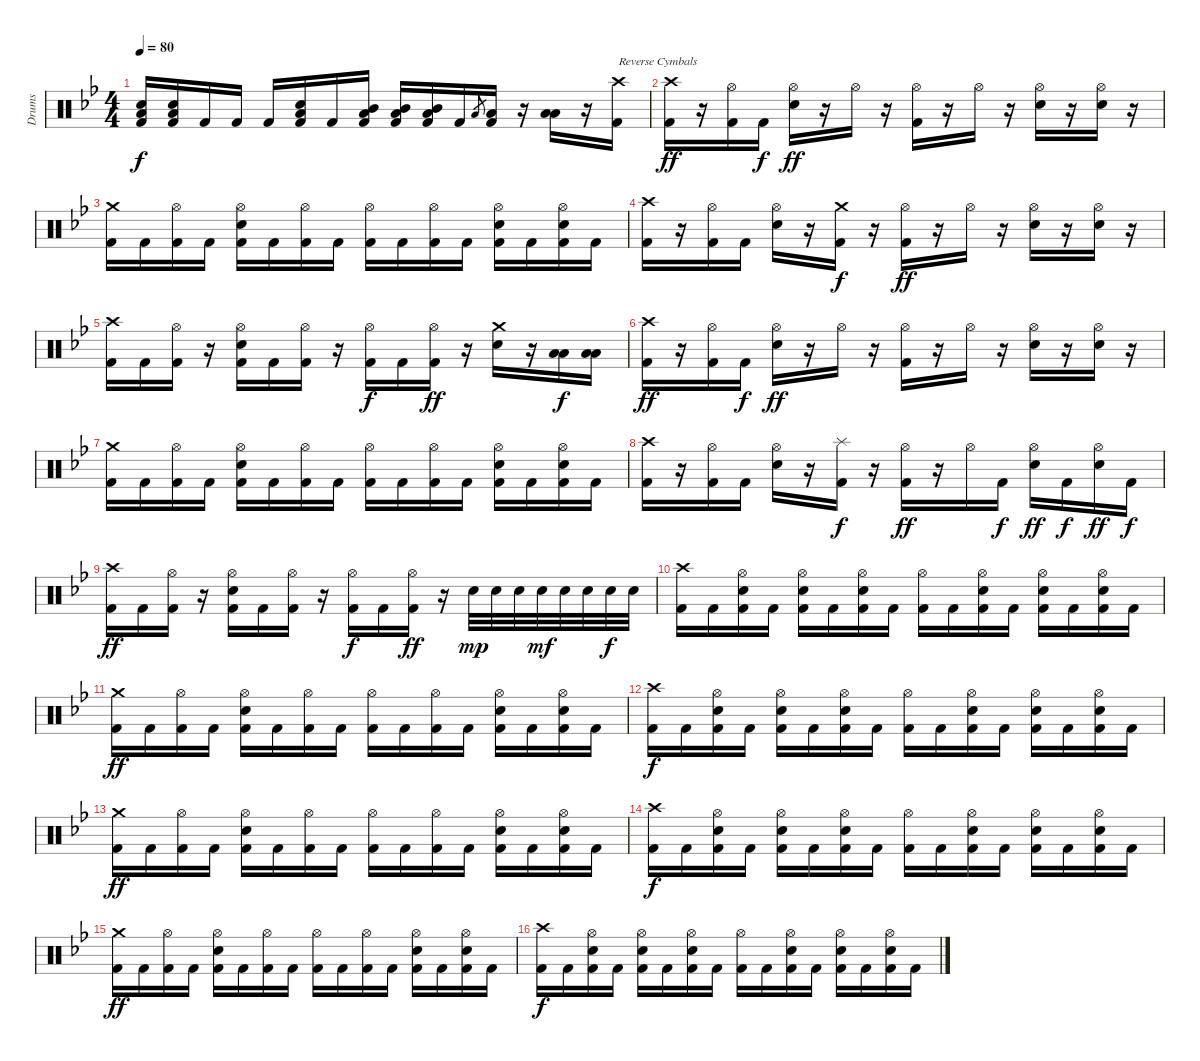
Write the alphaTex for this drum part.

\track ("Drums" "Drums") {instrument percussion}
\staff {score}
\articulation defaults
\ts (4 4)
\tempo 80
\clef neutral
\ks gminor
("Electric Snare (hit)" "Low Tom (hit)" "Kick (hit) 2").16{dy f} ("Electric Snare (hit)" "Low Tom (hit)" "Kick (hit) 2").16 "Kick (hit) 2".16 "Kick (hit) 2".16 "Kick (hit) 2".16 ("Low Floor Tom (hit)" "Electric Snare (hit)" "Kick (hit) 2").16 "Kick (hit) 2".16 ("Mid Tom (hit)" "Low Tom (hit)" "Kick (hit) 2").16 ("Mid Tom (hit)" "Low Tom (hit)" "Kick (hit) 2").16 ("Mid Tom (hit)" "Low Tom (hit)" "Kick (hit) 2").16 "Kick (hit) 2".16 "Low Tom (hit)".8{gr} ("Low Tom (hit)" "Kick (hit) 2").16 r.16 ("Low Floor Tom (hit)" "Low Tom (hit)").16 r.16 ("Kick (hit) 2" "Crash high (hit)").16{txt "Reverse Cymbals"} |
("Kick (hit) 2" "Crash high (hit)").16{dy ff} r.16 ("Kick (hit) 2" "Hi-Hat (open)").16 "Kick (hit) 2".16{dy f} ("Electric Snare (hit)" "Hi-Hat (open)").16{dy ff} r.16 "Hi-Hat (open)".16 r.16 ("Kick (hit) 2" "Hi-Hat (open)").16 r.16 "Hi-Hat (open)".16 r.16 ("Electric Snare (hit)" "Hi-Hat (open)").16 r.16 ("Electric Snare (hit)" "Hi-Hat (open)").16 r.16 |
("Kick (hit) 2" "Crash medium (hit)").16 "Kick (hit) 2".16 ("Kick (hit) 2" "Hi-Hat (open)").16 "Kick (hit) 2".16 ("Kick (hit) 2" "Electric Snare (hit)" "Hi-Hat (open)").16 "Kick (hit) 2".16 ("Kick (hit) 2" "Hi-Hat (open)").16 "Kick (hit) 2".16 ("Kick (hit) 2" "Hi-Hat (open)").16 "Kick (hit) 2".16 ("Kick (hit) 2" "Hi-Hat (open)").16 "Kick (hit) 2".16 ("Kick (hit) 2" "Electric Snare (hit)" "Hi-Hat (open)").16 "Kick (hit) 2".16 ("Kick (hit) 2" "Electric Snare (hit)" "Hi-Hat (open)").16 "Kick (hit) 2".16 |
("Kick (hit) 2" "Crash high (hit)").16 r.16 ("Kick (hit) 2" "Hi-Hat (open)").16 "Kick (hit) 2".16 ("Electric Snare (hit)" "Hi-Hat (open)").16 r.16 ("Kick (hit) 2" "Crash medium (hit)").16{dy f} r.16 ("Kick (hit) 2" "Hi-Hat (open)").16{dy ff} r.16 "Hi-Hat (open)".16 r.16 ("Electric Snare (hit)" "Hi-Hat (open)").16 r.16 ("Electric Snare (hit)" "Hi-Hat (open)").16 r.16 |
("Kick (hit) 2" "Crash high (hit)").16 "Kick (hit) 2".16 ("Kick (hit) 2" "Hi-Hat (open)").16 r.16 ("Kick (hit) 2" "Electric Snare (hit)" "Hi-Hat (open)").16 "Kick (hit) 2".16 ("Kick (hit) 2" "Hi-Hat (open)").16 r.16 ("Hi-Hat (open)" "Kick (hit) 2").16{dy f} "Kick (hit) 2".16 ("Kick (hit) 2" "Hi-Hat (open)").16{dy ff} r.16 ("Electric Snare (hit)" "Crash medium (hit)").16 r.16 ("Low Floor Tom (hit)" "Low Tom (hit)").16{dy f} ("Low Floor Tom (hit)" "Low Tom (hit)").16 |
("Kick (hit) 2" "Crash high (hit)").16{dy ff} r.16 ("Kick (hit) 2" "Hi-Hat (open)").16 "Kick (hit) 2".16{dy f} ("Electric Snare (hit)" "Hi-Hat (open)").16{dy ff} r.16 "Hi-Hat (open)".16 r.16 ("Kick (hit) 2" "Hi-Hat (open)").16 r.16 "Hi-Hat (open)".16 r.16 ("Electric Snare (hit)" "Hi-Hat (open)").16 r.16 ("Electric Snare (hit)" "Hi-Hat (open)").16 r.16 |
("Kick (hit) 2" "Crash medium (hit)").16 "Kick (hit) 2".16 ("Kick (hit) 2" "Hi-Hat (open)").16 "Kick (hit) 2".16 ("Kick (hit) 2" "Electric Snare (hit)" "Hi-Hat (open)").16 "Kick (hit) 2".16 ("Kick (hit) 2" "Hi-Hat (open)").16 "Kick (hit) 2".16 ("Kick (hit) 2" "Hi-Hat (open)").16 "Kick (hit) 2".16 ("Kick (hit) 2" "Hi-Hat (open)").16 "Kick (hit) 2".16 ("Kick (hit) 2" "Electric Snare (hit)" "Hi-Hat (open)").16 "Kick (hit) 2".16 ("Kick (hit) 2" "Electric Snare (hit)" "Hi-Hat (open)").16 "Kick (hit) 2".16 |
("Kick (hit) 2" "Crash high (hit)").16 r.16 ("Kick (hit) 2" "Hi-Hat (open)").16 "Kick (hit) 2".16 ("Electric Snare (hit)" "Hi-Hat (open)").16 r.16 ("Kick (hit) 2" "Splash (hit)").16{dy f} r.16 ("Kick (hit) 2" "Hi-Hat (open)").16{dy ff} r.16 "Hi-Hat (open)".16 "Kick (hit) 2".16{dy f} ("Electric Snare (hit)" "Hi-Hat (open)").16{dy ff} "Kick (hit) 2".16{dy f} ("Electric Snare (hit)" "Hi-Hat (open)").16{dy ff} "Kick (hit) 2".16{dy f} |
("Kick (hit) 2" "Crash high (hit)").16{dy ff} "Kick (hit) 2".16 ("Kick (hit) 2" "Hi-Hat (open)").16 r.16 ("Kick (hit) 2" "Electric Snare (hit)" "Hi-Hat (open)").16 "Kick (hit) 2".16 ("Kick (hit) 2" "Hi-Hat (open)").16 r.16 ("Hi-Hat (open)" "Kick (hit) 2").16{dy f} "Kick (hit) 2".16 ("Kick (hit) 2" "Hi-Hat (open)").16{dy ff} r.16 "Snare (hit) 2".32{dy mp} "Snare (hit) 2".32 "Snare (hit) 2".32 "Snare (hit) 2".32{dy mf} "Snare (hit) 2".32 "Snare (hit) 2".32 "Snare (hit) 2".32{dy f} "Electric Snare (hit)".32 |
("Kick (hit) 2" "Crash high (hit)").16 "Kick (hit) 2".16 ("Kick (hit) 2" "Electric Snare (hit)" "Hi-Hat (open)").16 "Kick (hit) 2".16 ("Kick (hit) 2" "Electric Snare (hit)" "Hi-Hat (open)").16 "Kick (hit) 2".16 ("Kick (hit) 2" "Electric Snare (hit)" "Hi-Hat (open)").16 "Kick (hit) 2".16 ("Kick (hit) 2" "Hi-Hat (open)").16 "Kick (hit) 2".16 ("Kick (hit) 2" "Electric Snare (hit)" "Hi-Hat (open)").16 "Kick (hit) 2".16 ("Kick (hit) 2" "Electric Snare (hit)" "Hi-Hat (open)").16 "Kick (hit) 2".16 ("Kick (hit) 2" "Electric Snare (hit)" "Hi-Hat (open)").16 "Kick (hit) 2".16 |
("Kick (hit) 2" "Crash medium (hit)").16{dy ff} "Kick (hit) 2".16 ("Kick (hit) 2" "Hi-Hat (open)").16 "Kick (hit) 2".16 ("Kick (hit) 2" "Electric Snare (hit)" "Hi-Hat (open)").16 "Kick (hit) 2".16 ("Kick (hit) 2" "Hi-Hat (open)").16 "Kick (hit) 2".16 ("Kick (hit) 2" "Hi-Hat (open)").16 "Kick (hit) 2".16 ("Kick (hit) 2" "Hi-Hat (open)").16 "Kick (hit) 2".16 ("Kick (hit) 2" "Electric Snare (hit)" "Hi-Hat (open)").16 "Kick (hit) 2".16 ("Kick (hit) 2" "Electric Snare (hit)" "Hi-Hat (open)").16 "Kick (hit) 2".16 |
("Kick (hit) 2" "Crash high (hit)").16{dy f} "Kick (hit) 2".16 ("Kick (hit) 2" "Electric Snare (hit)" "Hi-Hat (open)").16 "Kick (hit) 2".16 ("Kick (hit) 2" "Electric Snare (hit)" "Hi-Hat (open)").16 "Kick (hit) 2".16 ("Kick (hit) 2" "Electric Snare (hit)" "Hi-Hat (open)").16 "Kick (hit) 2".16 ("Kick (hit) 2" "Hi-Hat (open)").16 "Kick (hit) 2".16 ("Kick (hit) 2" "Electric Snare (hit)" "Hi-Hat (open)").16 "Kick (hit) 2".16 ("Kick (hit) 2" "Electric Snare (hit)" "Hi-Hat (open)").16 "Kick (hit) 2".16 ("Kick (hit) 2" "Electric Snare (hit)" "Hi-Hat (open)").16 "Kick (hit) 2".16 |
("Kick (hit) 2" "Crash medium (hit)").16{dy ff} "Kick (hit) 2".16 ("Kick (hit) 2" "Hi-Hat (open)").16 "Kick (hit) 2".16 ("Kick (hit) 2" "Electric Snare (hit)" "Hi-Hat (open)").16 "Kick (hit) 2".16 ("Kick (hit) 2" "Hi-Hat (open)").16 "Kick (hit) 2".16 ("Kick (hit) 2" "Hi-Hat (open)").16 "Kick (hit) 2".16 ("Kick (hit) 2" "Hi-Hat (open)").16 "Kick (hit) 2".16 ("Kick (hit) 2" "Electric Snare (hit)" "Hi-Hat (open)").16 "Kick (hit) 2".16 ("Kick (hit) 2" "Electric Snare (hit)" "Hi-Hat (open)").16 "Kick (hit) 2".16 |
("Kick (hit) 2" "Crash high (hit)").16{dy f} "Kick (hit) 2".16 ("Kick (hit) 2" "Electric Snare (hit)" "Hi-Hat (open)").16 "Kick (hit) 2".16 ("Kick (hit) 2" "Electric Snare (hit)" "Hi-Hat (open)").16 "Kick (hit) 2".16 ("Kick (hit) 2" "Electric Snare (hit)" "Hi-Hat (open)").16 "Kick (hit) 2".16 ("Kick (hit) 2" "Hi-Hat (open)").16 "Kick (hit) 2".16 ("Kick (hit) 2" "Electric Snare (hit)" "Hi-Hat (open)").16 "Kick (hit) 2".16 ("Kick (hit) 2" "Electric Snare (hit)" "Hi-Hat (open)").16 "Kick (hit) 2".16 ("Kick (hit) 2" "Electric Snare (hit)" "Hi-Hat (open)").16 "Kick (hit) 2".16 |
("Kick (hit) 2" "Crash medium (hit)").16{dy ff} "Kick (hit) 2".16 ("Kick (hit) 2" "Hi-Hat (open)").16 "Kick (hit) 2".16 ("Kick (hit) 2" "Electric Snare (hit)" "Hi-Hat (open)").16 "Kick (hit) 2".16 ("Kick (hit) 2" "Hi-Hat (open)").16 "Kick (hit) 2".16 ("Kick (hit) 2" "Hi-Hat (open)").16 "Kick (hit) 2".16 ("Kick (hit) 2" "Hi-Hat (open)").16 "Kick (hit) 2".16 ("Kick (hit) 2" "Electric Snare (hit)" "Hi-Hat (open)").16 "Kick (hit) 2".16 ("Kick (hit) 2" "Electric Snare (hit)" "Hi-Hat (open)").16 "Kick (hit) 2".16 |
("Kick (hit) 2" "Crash high (hit)").16{dy f} "Kick (hit) 2".16 ("Kick (hit) 2" "Electric Snare (hit)" "Hi-Hat (open)").16 "Kick (hit) 2".16 ("Kick (hit) 2" "Electric Snare (hit)" "Hi-Hat (open)").16 "Kick (hit) 2".16 ("Kick (hit) 2" "Electric Snare (hit)" "Hi-Hat (open)").16 "Kick (hit) 2".16 ("Kick (hit) 2" "Hi-Hat (open)").16 "Kick (hit) 2".16 ("Kick (hit) 2" "Electric Snare (hit)" "Hi-Hat (open)").16 "Kick (hit) 2".16 ("Kick (hit) 2" "Electric Snare (hit)" "Hi-Hat (open)").16 "Kick (hit) 2".16 ("Kick (hit) 2" "Electric Snare (hit)" "Hi-Hat (open)").16 "Kick (hit) 2".16
